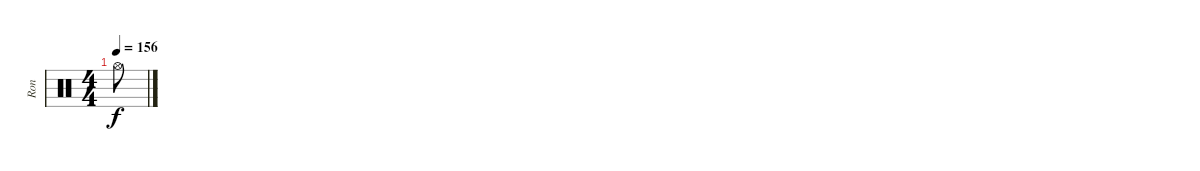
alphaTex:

\track ("Ron" "Ron") {instrument percussion}
\staff {score}
\articulation defaults
\ts (4 4)
\tempo 156
\clef neutral
\ks c "Hi-Hat (open)".8{dy f}
